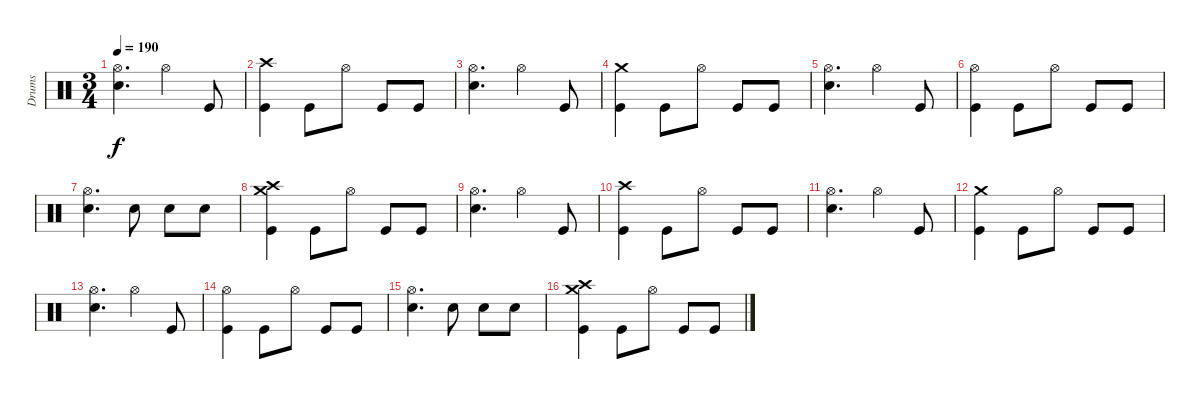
\track ("Drums" "Drums") {instrument percussion}
\staff {score}
\articulation defaults
\ts (3 4)
\tempo 190
\clef neutral
\ks c
("Hi-Hat (open)" "Snare (hit) 2").4{d dy f} "Hi-Hat (open)".4 "Kick (hit)".8 |
("Crash high (hit)" "Kick (hit)").4 "Kick (hit)".8 "Hi-Hat (open)".8 "Kick (hit)".8 "Kick (hit)".8 |
("Hi-Hat (open)" "Snare (hit) 2").4{d} "Hi-Hat (open)".4 "Kick (hit)".8 |
("Crash medium (hit)" "Kick (hit)").4 "Kick (hit)".8 "Hi-Hat (open)".8 "Kick (hit)".8 "Kick (hit)".8 |
("Hi-Hat (open)" "Snare (hit) 2").4{d} "Hi-Hat (open)".4 "Kick (hit)".8 |
("Hi-Hat (open)" "Kick (hit)").4 "Kick (hit)".8 "Hi-Hat (open)".8 "Kick (hit)".8 "Kick (hit)".8 |
("Hi-Hat (open)" "Snare (hit) 2").4{d} "Snare (hit) 2".8 "Snare (hit) 2".8 "Snare (hit) 2".8 |
("Crash high (hit)" "Crash medium (hit)" "Kick (hit)").4 "Kick (hit)".8 "Hi-Hat (open)".8 "Kick (hit)".8 "Kick (hit)".8 |
("Hi-Hat (open)" "Snare (hit) 2").4{d} "Hi-Hat (open)".4 "Kick (hit)".8 |
("Crash high (hit)" "Kick (hit)").4 "Kick (hit)".8 "Hi-Hat (open)".8 "Kick (hit)".8 "Kick (hit)".8 |
("Hi-Hat (open)" "Snare (hit) 2").4{d} "Hi-Hat (open)".4 "Kick (hit)".8 |
("Crash medium (hit)" "Kick (hit)").4 "Kick (hit)".8 "Hi-Hat (open)".8 "Kick (hit)".8 "Kick (hit)".8 |
("Hi-Hat (open)" "Snare (hit) 2").4{d} "Hi-Hat (open)".4 "Kick (hit)".8 |
("Hi-Hat (open)" "Kick (hit)").4 "Kick (hit)".8 "Hi-Hat (open)".8 "Kick (hit)".8 "Kick (hit)".8 |
("Hi-Hat (open)" "Snare (hit) 2").4{d} "Snare (hit) 2".8 "Snare (hit) 2".8 "Snare (hit) 2".8 |
("Crash high (hit)" "Crash medium (hit)" "Kick (hit)").4 "Kick (hit)".8 "Hi-Hat (open)".8 "Kick (hit)".8 "Kick (hit)".8
